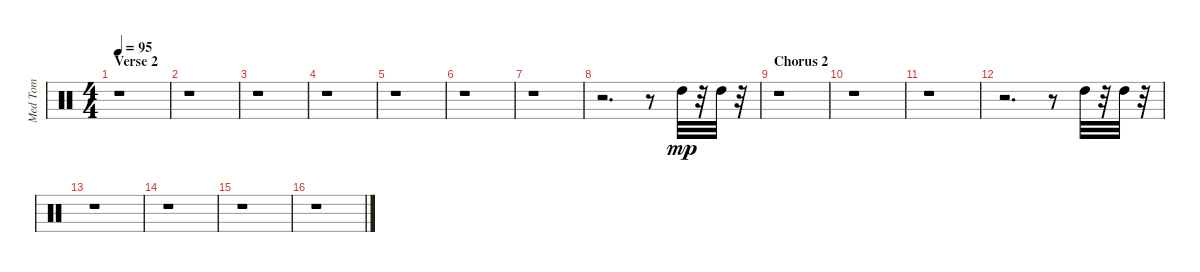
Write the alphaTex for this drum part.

\track ("Med Tom" "Med Tom") {instrument percussion}
\staff {score}
\articulation defaults
\ts (4 4)
\section ("" "Verse 2")
\tempo 95
\clef neutral
\ks c
r.1{dy mp} |
r.1 |
r.1 |
r.1 |
r.1 |
r.1 |
r.1 |
r.2{d} r.8 "High Tom (hit)".32 r.32 "High Tom (hit)".32 r.32 |
\section ("" "Chorus 2")
r.1 |
r.1 |
r.1 |
r.2{d} r.8 "High Tom (hit)".32 r.32 "High Tom (hit)".32 r.32 |
r.1 |
r.1 |
r.1 |
r.1
